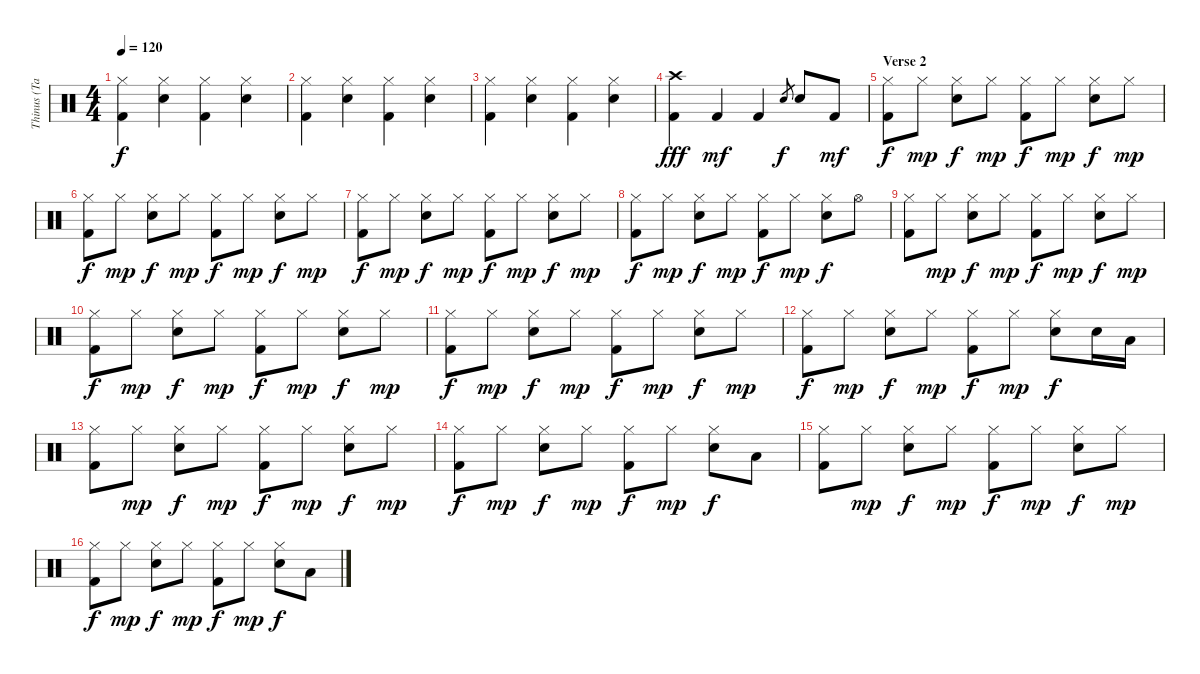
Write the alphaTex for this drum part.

\track ("Thinus (Tain) Odendaal - Drums" "Thinus (Ta") {instrument percussion}
\staff {score}
\articulation defaults
\ts (4 4)
\tempo 120
\clef neutral
\ks c
("Hi-Hat (closed)" "Kick (hit) 2").4{dy f} ("Hi-Hat (closed)" "Snare (hit) 2").4 ("Hi-Hat (closed)" "Kick (hit) 2").4 ("Hi-Hat (closed)" "Snare (hit) 2").4 |
("Hi-Hat (closed)" "Kick (hit) 2").4 ("Hi-Hat (closed)" "Snare (hit) 2").4 ("Hi-Hat (closed)" "Kick (hit) 2").4 ("Hi-Hat (closed)" "Snare (hit) 2").4 |
("Hi-Hat (closed)" "Kick (hit) 2").4 ("Hi-Hat (closed)" "Snare (hit) 2").4 ("Hi-Hat (closed)" "Kick (hit) 2").4 ("Hi-Hat (closed)" "Snare (hit) 2").4 |
("Crash high (hit)" "Kick (hit) 2").4{dy fff} "Kick (hit) 2".4{dy mf} "Kick (hit) 2".4 "Snare (hit) 2"{h}.8{gr dy f} "Snare (hit) 2".8 "Kick (hit) 2".8{dy mf} |
\section ("" "Verse 2")
("Hi-Hat (closed)" "Kick (hit) 2").8{dy f} "Hi-Hat (closed)".8{dy mp} ("Hi-Hat (closed)" "Snare (hit) 2").8{dy f} "Hi-Hat (closed)".8{dy mp} ("Hi-Hat (closed)" "Kick (hit) 2").8{dy f} "Hi-Hat (closed)".8{dy mp} ("Hi-Hat (closed)" "Snare (hit) 2").8{dy f} "Hi-Hat (closed)".8{dy mp} |
("Hi-Hat (closed)" "Kick (hit) 2").8{dy f} "Hi-Hat (closed)".8{dy mp} ("Hi-Hat (closed)" "Snare (hit) 2").8{dy f} "Hi-Hat (closed)".8{dy mp} ("Hi-Hat (closed)" "Kick (hit) 2").8{dy f} "Hi-Hat (closed)".8{dy mp} ("Hi-Hat (closed)" "Snare (hit) 2").8{dy f} "Hi-Hat (closed)".8{dy mp} |
("Hi-Hat (closed)" "Kick (hit) 2").8{dy f} "Hi-Hat (closed)".8{dy mp} ("Hi-Hat (closed)" "Snare (hit) 2").8{dy f} "Hi-Hat (closed)".8{dy mp} ("Hi-Hat (closed)" "Kick (hit) 2").8{dy f} "Hi-Hat (closed)".8{dy mp} ("Hi-Hat (closed)" "Snare (hit) 2").8{dy f} "Hi-Hat (closed)".8{dy mp} |
("Hi-Hat (closed)" "Kick (hit) 2").8{dy f} "Hi-Hat (closed)".8{dy mp} ("Hi-Hat (closed)" "Snare (hit) 2").8{dy f} "Hi-Hat (closed)".8{dy mp} ("Hi-Hat (closed)" "Kick (hit) 2").8{dy f} "Hi-Hat (closed)".8{dy mp} ("Hi-Hat (closed)" "Snare (hit) 2").8{dy f} "Hi-Hat (open)".8 |
("Hi-Hat (closed)" "Kick (hit) 2").8 "Hi-Hat (closed)".8{dy mp} ("Hi-Hat (closed)" "Snare (hit) 2").8{dy f} "Hi-Hat (closed)".8{dy mp} ("Hi-Hat (closed)" "Kick (hit) 2").8{dy f} "Hi-Hat (closed)".8{dy mp} ("Hi-Hat (closed)" "Snare (hit) 2").8{dy f} "Hi-Hat (closed)".8{dy mp} |
("Hi-Hat (closed)" "Kick (hit) 2").8{dy f} "Hi-Hat (closed)".8{dy mp} ("Hi-Hat (closed)" "Snare (hit) 2").8{dy f} "Hi-Hat (closed)".8{dy mp} ("Hi-Hat (closed)" "Kick (hit) 2").8{dy f} "Hi-Hat (closed)".8{dy mp} ("Hi-Hat (closed)" "Snare (hit) 2").8{dy f} "Hi-Hat (closed)".8{dy mp} |
("Hi-Hat (closed)" "Kick (hit) 2").8{dy f} "Hi-Hat (closed)".8{dy mp} ("Hi-Hat (closed)" "Snare (hit) 2").8{dy f} "Hi-Hat (closed)".8{dy mp} ("Hi-Hat (closed)" "Kick (hit) 2").8{dy f} "Hi-Hat (closed)".8{dy mp} ("Hi-Hat (closed)" "Snare (hit) 2").8{dy f} "Hi-Hat (closed)".8{dy mp} |
("Hi-Hat (closed)" "Kick (hit) 2").8{dy f} "Hi-Hat (closed)".8{dy mp} ("Hi-Hat (closed)" "Snare (hit) 2").8{dy f} "Hi-Hat (closed)".8{dy mp} ("Hi-Hat (closed)" "Kick (hit) 2").8{dy f} "Hi-Hat (closed)".8{dy mp} ("Hi-Hat (closed)" "Snare (hit) 2").8{dy f} "Snare (hit) 2".16 "Low Tom (hit)".16 |
("Hi-Hat (closed)" "Kick (hit) 2").8 "Hi-Hat (closed)".8{dy mp} ("Hi-Hat (closed)" "Snare (hit) 2").8{dy f} "Hi-Hat (closed)".8{dy mp} ("Hi-Hat (closed)" "Kick (hit) 2").8{dy f} "Hi-Hat (closed)".8{dy mp} ("Hi-Hat (closed)" "Snare (hit) 2").8{dy f} "Hi-Hat (closed)".8{dy mp} |
("Hi-Hat (closed)" "Kick (hit) 2").8{dy f} "Hi-Hat (closed)".8{dy mp} ("Hi-Hat (closed)" "Snare (hit) 2").8{dy f} "Hi-Hat (closed)".8{dy mp} ("Hi-Hat (closed)" "Kick (hit) 2").8{dy f} "Hi-Hat (closed)".8{dy mp} ("Hi-Hat (closed)" "Snare (hit) 2").8{dy f} "Low Tom (hit)".8 |
("Hi-Hat (closed)" "Kick (hit) 2").8 "Hi-Hat (closed)".8{dy mp} ("Hi-Hat (closed)" "Snare (hit) 2").8{dy f} "Hi-Hat (closed)".8{dy mp} ("Hi-Hat (closed)" "Kick (hit) 2").8{dy f} "Hi-Hat (closed)".8{dy mp} ("Hi-Hat (closed)" "Snare (hit) 2").8{dy f} "Hi-Hat (closed)".8{dy mp} |
("Hi-Hat (closed)" "Kick (hit) 2").8{dy f} "Hi-Hat (closed)".8{dy mp} ("Hi-Hat (closed)" "Snare (hit) 2").8{dy f} "Hi-Hat (closed)".8{dy mp} ("Hi-Hat (closed)" "Kick (hit) 2").8{dy f} "Hi-Hat (closed)".8{dy mp} ("Hi-Hat (closed)" "Snare (hit) 2").8{dy f} "Low Tom (hit)".8
